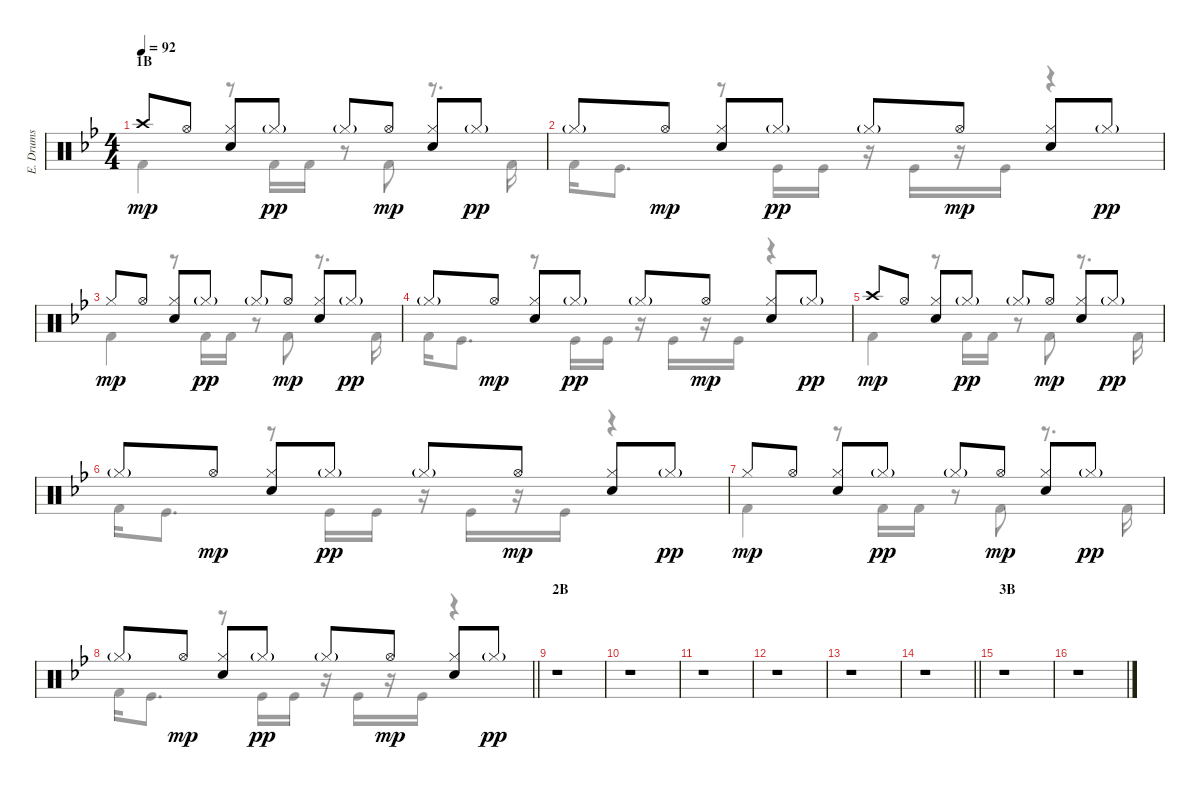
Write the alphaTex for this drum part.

\track ("E. Drums" "E. Drums") {instrument percussion}
\staff {score}
\articulation defaults
\voice
\ts (4 4)
\section ("" "1B")
\tempo 92
\clef neutral
\ks bb "Crash high (hit)".8{dy mp} "Hi-Hat (open)".8
("Hi-Hat (closed)" "Electric Snare (hit)").8 "Hi-Hat (closed)"{g}.8{dy pp} "Hi-Hat (closed)"{g}.8 "Hi-Hat (open)".8{dy mp} ("Hi-Hat (closed)" "Electric Snare (hit)").8 "Hi-Hat (closed)"{g}.8{dy pp} |
"Hi-Hat (closed)"{g}.8 "Hi-Hat (open)".8{dy mp} ("Hi-Hat (closed)" "Electric Snare (hit)").8 "Hi-Hat (closed)"{g}.8{dy pp} "Hi-Hat (closed)"{g}.8 "Hi-Hat (open)".8{dy mp} ("Hi-Hat (closed)" "Electric Snare (hit)").8 "Hi-Hat (closed)"{g}.8{dy pp} |
"Hi-Hat (closed)".8{dy mp} "Hi-Hat (open)".8 ("Hi-Hat (closed)" "Electric Snare (hit)").8 "Hi-Hat (closed)"{g}.8{dy pp} "Hi-Hat (closed)"{g}.8 "Hi-Hat (open)".8{dy mp} ("Hi-Hat (closed)" "Electric Snare (hit)").8 "Hi-Hat (closed)"{g}.8{dy pp} |
"Hi-Hat (closed)"{g}.8 "Hi-Hat (open)".8{dy mp} ("Hi-Hat (closed)" "Electric Snare (hit)").8 "Hi-Hat (closed)"{g}.8{dy pp} "Hi-Hat (closed)"{g}.8 "Hi-Hat (open)".8{dy mp} ("Hi-Hat (closed)" "Electric Snare (hit)").8 "Hi-Hat (closed)"{g}.8{dy pp} |
"Crash high (hit)".8{dy mp} "Hi-Hat (open)".8 ("Hi-Hat (closed)" "Electric Snare (hit)").8 "Hi-Hat (closed)"{g}.8{dy pp} "Hi-Hat (closed)"{g}.8 "Hi-Hat (open)".8{dy mp} ("Hi-Hat (closed)" "Electric Snare (hit)").8 "Hi-Hat (closed)"{g}.8{dy pp} |
"Hi-Hat (closed)"{g}.8 "Hi-Hat (open)".8{dy mp} ("Hi-Hat (closed)" "Electric Snare (hit)").8 "Hi-Hat (closed)"{g}.8{dy pp} "Hi-Hat (closed)"{g}.8 "Hi-Hat (open)".8{dy mp} ("Hi-Hat (closed)" "Electric Snare (hit)").8 "Hi-Hat (closed)"{g}.8{dy pp} |
"Hi-Hat (closed)".8{dy mp} "Hi-Hat (open)".8 ("Hi-Hat (closed)" "Electric Snare (hit)").8 "Hi-Hat (closed)"{g}.8{dy pp} "Hi-Hat (closed)"{g}.8 "Hi-Hat (open)".8{dy mp} ("Hi-Hat (closed)" "Electric Snare (hit)").8 "Hi-Hat (closed)"{g}.8{dy pp} |
\barLineRight lightlight "Hi-Hat (closed)"{g}.8 "Hi-Hat (open)".8{dy mp}
("Hi-Hat (closed)" "Electric Snare (hit)").8 "Hi-Hat (closed)"{g}.8{dy pp} "Hi-Hat (closed)"{g}.8 "Hi-Hat (open)".8{dy mp} ("Hi-Hat (closed)" "Electric Snare (hit)").8 "Hi-Hat (closed)"{g}.8{dy pp} |
\section ("" "2B")
r.1 |
r.1 |
r.1 |
r.1 |
r.1 |
\barLineRight lightlight
r.1 |
\section ("" "3B")
r.1 |
r.1
\voice
\clef neutral
\ottava regular
\simile none
\ks bb "Kick (hit) 2".4{dy mp}
r.8 "Kick (hit) 2".16 "Kick (hit) 2".16 r.8 "Kick (hit) 2".8 r.8{d} "Kick (hit) 2".16 |
"Kick (hit) 2".16 "Kick (hit)".8{d} r.8 "Kick (hit)".16 "Kick (hit)".16 r.16 "Kick (hit)".16 r.16 "Kick (hit)".16 r.4 |
"Kick (hit) 2".4 r.8 "Kick (hit) 2".16 "Kick (hit) 2".16 r.8 "Kick (hit) 2".8 r.8{d} "Kick (hit) 2".16 |
"Kick (hit) 2".16 "Kick (hit)".8{d} r.8 "Kick (hit)".16 "Kick (hit)".16 r.16 "Kick (hit)".16 r.16 "Kick (hit)".16 r.4 |
"Kick (hit) 2".4 r.8 "Kick (hit) 2".16 "Kick (hit) 2".16 r.8 "Kick (hit) 2".8 r.8{d} "Kick (hit) 2".16 |
"Kick (hit) 2".16 "Kick (hit)".8{d} r.8 "Kick (hit)".16 "Kick (hit)".16 r.16 "Kick (hit)".16 r.16 "Kick (hit)".16 r.4 |
"Kick (hit) 2".4 r.8 "Kick (hit) 2".16 "Kick (hit) 2".16 r.8 "Kick (hit) 2".8 r.8{d} "Kick (hit) 2".16 |
\barLineRight lightlight "Kick (hit) 2".16 "Kick (hit)".8{d}
r.8 "Kick (hit)".16 "Kick (hit)".16 r.16 "Kick (hit)".16 r.16 "Kick (hit)".16 r.4 |
r.1 |
r.1 |
r.1 |
r.1 |
r.1 |
\barLineRight lightlight
r.1 |
r.1 |
r.1
